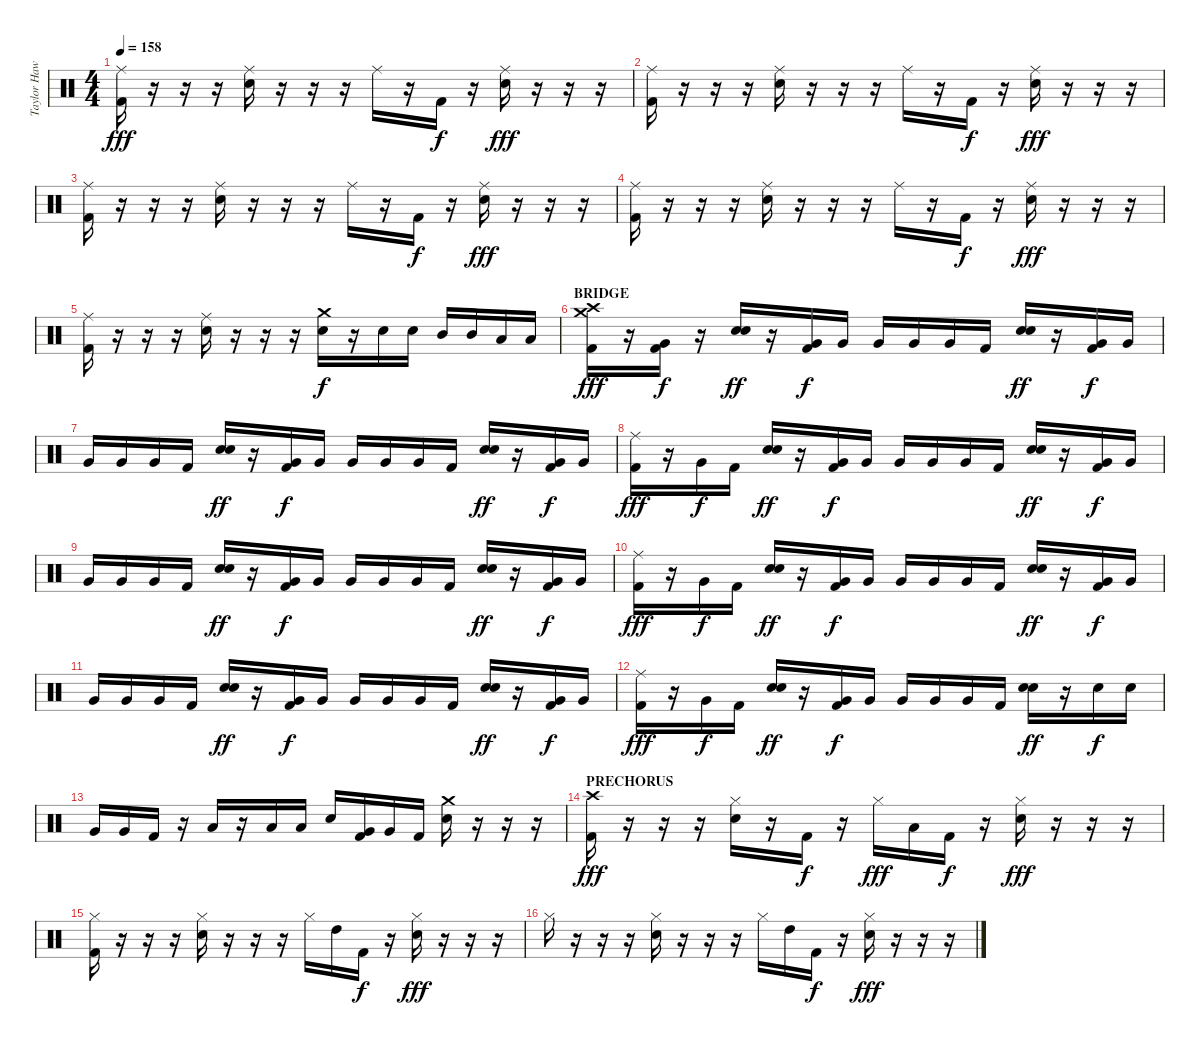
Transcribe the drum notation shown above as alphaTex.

\track ("Taylor Hawkins (Drums)" "Taylor Haw") {instrument percussion}
\staff {score}
\articulation defaults
\ts (4 4)
\tempo 158
\clef neutral
\ks c
("Ride (middle)" "Kick (hit) 2").16{dy fff} r.16 r.16 r.16 ("Ride (middle)" "Electric Snare (hit)").16 r.16 r.16 r.16 "Ride (middle)".16 r.16 "Kick (hit) 2".16{dy f} r.16 ("Ride (middle)" "Electric Snare (hit)").16{dy fff} r.16 r.16 r.16 |
("Ride (middle)" "Kick (hit) 2").16 r.16 r.16 r.16 ("Ride (middle)" "Electric Snare (hit)").16 r.16 r.16 r.16 "Ride (middle)".16 r.16 "Kick (hit) 2".16{dy f} r.16 ("Ride (middle)" "Electric Snare (hit)").16{dy fff} r.16 r.16 r.16 |
("Ride (middle)" "Kick (hit) 2").16 r.16 r.16 r.16 ("Ride (middle)" "Electric Snare (hit)").16 r.16 r.16 r.16 "Ride (middle)".16 r.16 "Kick (hit) 2".16{dy f} r.16 ("Ride (middle)" "Electric Snare (hit)").16{dy fff} r.16 r.16 r.16 |
("Ride (middle)" "Kick (hit) 2").16 r.16 r.16 r.16 ("Ride (middle)" "Electric Snare (hit)").16 r.16 r.16 r.16 "Ride (middle)".16 r.16 "Kick (hit) 2".16{dy f} r.16 ("Ride (middle)" "Electric Snare (hit)").16{dy fff} r.16 r.16 r.16 |
("Ride (middle)" "Kick (hit) 2").16 r.16 r.16 r.16 ("Ride (middle)" "Electric Snare (hit)").16 r.16 r.16 r.16 ("Crash medium (hit)" "Electric Snare (hit)").16{dy f} r.16 "Electric Snare (hit)".16 "Electric Snare (hit)".16 "Mid Tom (hit)".16 "Mid Tom (hit)".16 "Low Tom (hit)".16 "Low Tom (hit)".16 |
\section ("" "BRIDGE")
("Crash high (hit)" "Crash medium (hit)" "Kick (hit) 2").16{dy fff} r.16 ("Very Low Tom (hit)" "Kick (hit) 2").16{dy f} r.16 ("Electric Snare (hit)" "Electric Snare (hit)").16{bu 120 dy ff} r.16 ("Very Low Tom (hit)" "Kick (hit) 2").16{dy f} "Very Low Tom (hit)".16 "Very Low Tom (hit)".16 "Very Low Tom (hit)".16 "Very Low Tom (hit)".16 "Kick (hit) 2".16 ("Electric Snare (hit)" "Electric Snare (hit)").16{bu 120 dy ff} r.16 ("Very Low Tom (hit)" "Kick (hit) 2").16{dy f} "Very Low Tom (hit)".16 |
"Very Low Tom (hit)".16 "Very Low Tom (hit)".16 "Very Low Tom (hit)".16 "Kick (hit) 2".16 ("Electric Snare (hit)" "Electric Snare (hit)").16{bu 120 dy ff} r.16 ("Very Low Tom (hit)" "Kick (hit) 2").16{dy f} "Very Low Tom (hit)".16 "Very Low Tom (hit)".16 "Very Low Tom (hit)".16 "Very Low Tom (hit)".16 "Kick (hit) 2".16 ("Electric Snare (hit)" "Electric Snare (hit)").16{bu 120 dy ff} r.16 ("Very Low Tom (hit)" "Kick (hit) 2").16{dy f} "Very Low Tom (hit)".16 |
("Ride (middle)" "Kick (hit) 2").16{dy fff} r.16 "Very Low Tom (hit)".16{dy f} "Kick (hit) 2".16 ("Electric Snare (hit)" "Electric Snare (hit)").16{bu 120 dy ff} r.16 ("Very Low Tom (hit)" "Kick (hit) 2").16{dy f} "Very Low Tom (hit)".16 "Very Low Tom (hit)".16 "Very Low Tom (hit)".16 "Very Low Tom (hit)".16 "Kick (hit) 2".16 ("Electric Snare (hit)" "Electric Snare (hit)").16{bu 120 dy ff} r.16 ("Very Low Tom (hit)" "Kick (hit) 2").16{dy f} "Very Low Tom (hit)".16 |
"Very Low Tom (hit)".16 "Very Low Tom (hit)".16 "Very Low Tom (hit)".16 "Kick (hit) 2".16 ("Electric Snare (hit)" "Electric Snare (hit)").16{bu 120 dy ff} r.16 ("Very Low Tom (hit)" "Kick (hit) 2").16{dy f} "Very Low Tom (hit)".16 "Very Low Tom (hit)".16 "Very Low Tom (hit)".16 "Very Low Tom (hit)".16 "Kick (hit) 2".16 ("Electric Snare (hit)" "Electric Snare (hit)").16{bu 120 dy ff} r.16 ("Very Low Tom (hit)" "Kick (hit) 2").16{dy f} "Very Low Tom (hit)".16 |
("Ride (middle)" "Kick (hit) 2").16{dy fff} r.16 "Very Low Tom (hit)".16{dy f} "Kick (hit) 2".16 ("Electric Snare (hit)" "Electric Snare (hit)").16{bu 120 dy ff} r.16 ("Very Low Tom (hit)" "Kick (hit) 2").16{dy f} "Very Low Tom (hit)".16 "Very Low Tom (hit)".16 "Very Low Tom (hit)".16 "Very Low Tom (hit)".16 "Kick (hit) 2".16 ("Electric Snare (hit)" "Electric Snare (hit)").16{bu 120 dy ff} r.16 ("Very Low Tom (hit)" "Kick (hit) 2").16{dy f} "Very Low Tom (hit)".16 |
"Very Low Tom (hit)".16 "Very Low Tom (hit)".16 "Very Low Tom (hit)".16 "Kick (hit) 2".16 ("Electric Snare (hit)" "Electric Snare (hit)").16{bu 120 dy ff} r.16 ("Very Low Tom (hit)" "Kick (hit) 2").16{dy f} "Very Low Tom (hit)".16 "Very Low Tom (hit)".16 "Very Low Tom (hit)".16 "Very Low Tom (hit)".16 "Kick (hit) 2".16 ("Electric Snare (hit)" "Electric Snare (hit)").16{bu 120 dy ff} r.16 ("Very Low Tom (hit)" "Kick (hit) 2").16{dy f} "Very Low Tom (hit)".16 |
("Ride (middle)" "Kick (hit) 2").16{dy fff} r.16 "Very Low Tom (hit)".16{dy f} "Kick (hit) 2".16 ("Electric Snare (hit)" "Electric Snare (hit)").16{bu 120 dy ff} r.16 ("Very Low Tom (hit)" "Kick (hit) 2").16{dy f} "Very Low Tom (hit)".16 "Very Low Tom (hit)".16 "Very Low Tom (hit)".16 "Very Low Tom (hit)".16 "Kick (hit) 2".16 ("Electric Snare (hit)" "Electric Snare (hit)").16{bu 120 dy ff} r.16 "Electric Snare (hit)".16{dy f} "Electric Snare (hit)".16 |
"Very Low Tom (hit)".16 "Very Low Tom (hit)".16 "Kick (hit) 2".16 r.16 "Low Tom (hit)".16 r.16 "Low Tom (hit)".16 "Low Tom (hit)".16 "Electric Snare (hit)".16 ("Very Low Tom (hit)" "Kick (hit) 2").16 "Very Low Tom (hit)".16 "Kick (hit) 2".16 ("Crash medium (hit)" "Electric Snare (hit)").16 r.16 r.16 r.16 |
\section ("" "PRECHORUS")
("Crash high (hit)" "Kick (hit) 2").16{dy fff} r.16 r.16 r.16 ("Hi-Hat (closed)" "Electric Snare (hit)").16 r.16 "Kick (hit) 2".16{dy f} r.16 "Hi-Hat (closed)".16{dy fff} "Low Tom (hit)".16 "Kick (hit) 2".16{dy f} r.16 ("Hi-Hat (closed)" "Electric Snare (hit)").16{dy fff} r.16 r.16 r.16 |
("Hi-Hat (closed)" "Kick (hit) 2").16 r.16 r.16 r.16 ("Hi-Hat (closed)" "Electric Snare (hit)").16 r.16 r.16 r.16 "Hi-Hat (closed)".16 "High Tom (hit)".16 "Kick (hit) 2".16{dy f} r.16 ("Hi-Hat (closed)" "Electric Snare (hit)").16{dy fff} r.16 r.16 r.16 |
"Hi-Hat (closed)".16 r.16 r.16 r.16 ("Hi-Hat (closed)" "Electric Snare (hit)").16 r.16 r.16 r.16 "Hi-Hat (closed)".16 "High Tom (hit)".16 "Kick (hit) 2".16{dy f} r.16 ("Hi-Hat (closed)" "Electric Snare (hit)").16{dy fff} r.16 r.16 r.16
